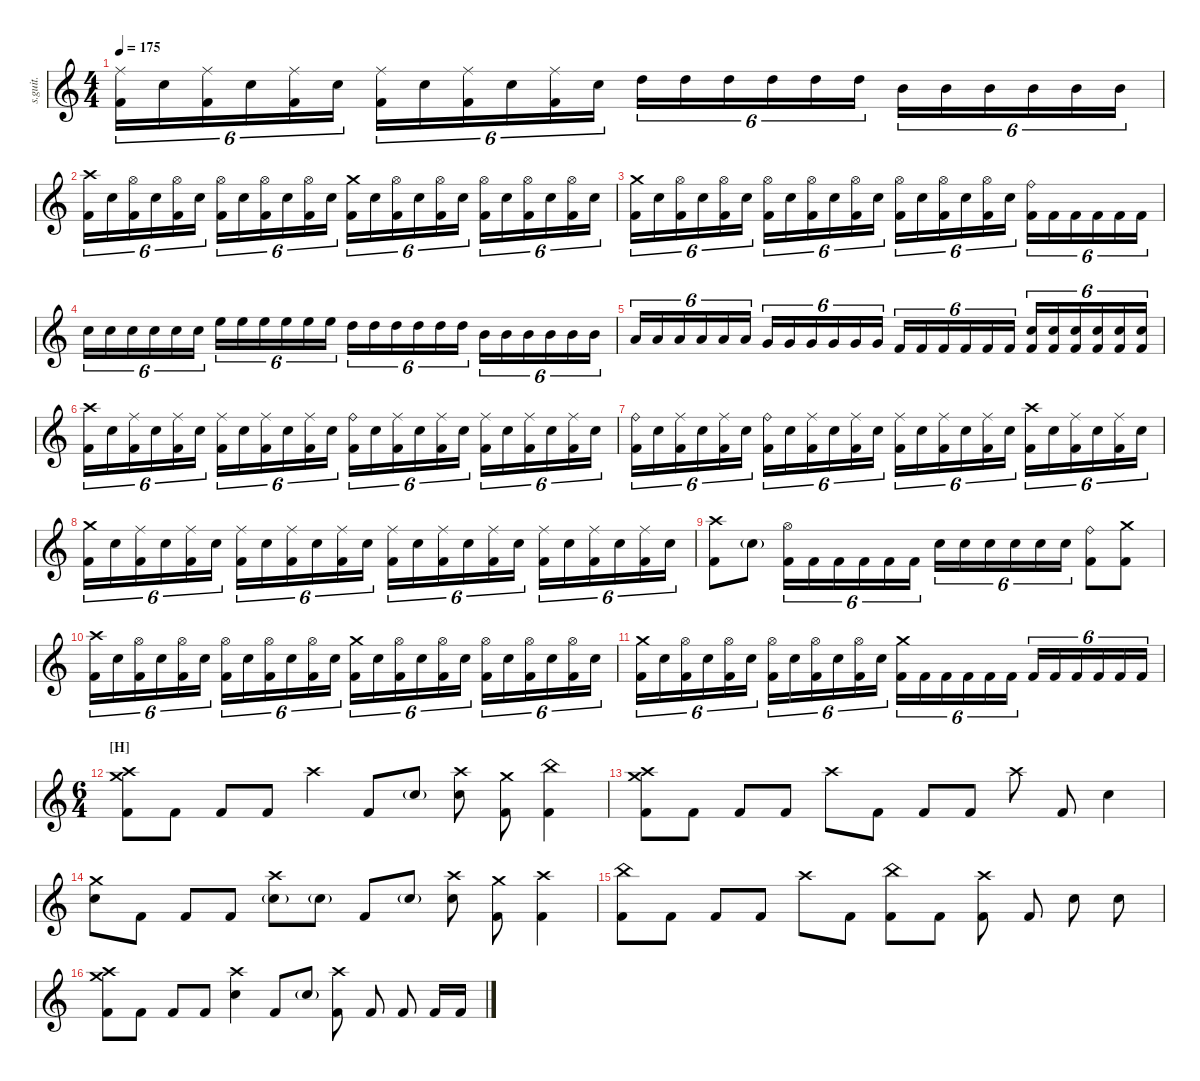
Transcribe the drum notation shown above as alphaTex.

\defaultSystemsLayout 4
\hideDynamics
\bracketExtendMode nobrackets
\track ("" "s.guit.") {instrument percussion}
\staff {score}
\articulation defaults
\ts (4 4)
\tempo 175
\clef g2
\ks c
("Ride (middle)" "Kick (hit) 2").16{tu (6 4) dy ff} "Snare (hit) 2".16{tu (6 4)} ("Ride (middle)" "Kick (hit) 2").16{tu (6 4)} "Snare (hit) 2".16{tu (6 4)} ("Ride (middle)" "Kick (hit) 2").16{tu (6 4)} "Snare (hit) 2".16{tu (6 4)} ("Ride (middle)" "Kick (hit) 2").16{tu (6 4)} "Snare (hit) 2".16{tu (6 4)} ("Ride (middle)" "Kick (hit) 2").16{tu (6 4)} "Snare (hit) 2".16{tu (6 4)} ("Ride (middle)" "Kick (hit) 2").16{tu (6 4)} "Snare (hit) 2".16{tu (6 4)} "High Tom (hit)".16{tu (6 4)} "High Tom (hit)".16{tu (6 4)} "High Tom (hit)".16{tu (6 4)} "High Tom (hit)".16{tu (6 4)} "High Tom (hit)".16{tu (6 4)} "High Tom (hit)".16{tu (6 4)} "Mid Tom (hit)".16{tu (6 4)} "Mid Tom (hit)".16{tu (6 4)} "Mid Tom (hit)".16{tu (6 4)} "Mid Tom (hit)".16{tu (6 4)} "Mid Tom (hit)".16{tu (6 4)} "Mid Tom (hit)".16{tu (6 4)} |
("Crash high (hit)" "Kick (hit) 2").16{tu (6 4)} "Snare (hit) 2".16{tu (6 4)} ("Hi-Hat (open)" "Kick (hit) 2").16{tu (6 4)} "Snare (hit) 2".16{tu (6 4)} ("Hi-Hat (open)" "Kick (hit) 2").16{tu (6 4)} "Snare (hit) 2".16{tu (6 4)} ("Hi-Hat (open)" "Kick (hit) 2").16{tu (6 4)} "Snare (hit) 2".16{tu (6 4)} ("Hi-Hat (open)" "Kick (hit) 2").16{tu (6 4)} "Snare (hit) 2".16{tu (6 4)} ("Hi-Hat (open)" "Kick (hit) 2").16{tu (6 4)} "Snare (hit) 2".16{tu (6 4)} ("Crash medium (hit)" "Kick (hit) 2").16{tu (6 4)} "Snare (hit) 2".16{tu (6 4)} ("Hi-Hat (open)" "Kick (hit) 2").16{tu (6 4)} "Snare (hit) 2".16{tu (6 4)} ("Hi-Hat (open)" "Kick (hit) 2").16{tu (6 4)} "Snare (hit) 2".16{tu (6 4)} ("Hi-Hat (open)" "Kick (hit) 2").16{tu (6 4)} "Snare (hit) 2".16{tu (6 4)} ("Hi-Hat (open)" "Kick (hit) 2").16{tu (6 4)} "Snare (hit) 2".16{tu (6 4)} ("Hi-Hat (open)" "Kick (hit) 2").16{tu (6 4)} "Snare (hit) 2".16{tu (6 4)} |
("Crash medium (hit)" "Kick (hit) 2").16{tu (6 4)} "Snare (hit) 2".16{tu (6 4)} ("Hi-Hat (open)" "Kick (hit) 2").16{tu (6 4)} "Snare (hit) 2".16{tu (6 4)} ("Hi-Hat (open)" "Kick (hit) 2").16{tu (6 4)} "Snare (hit) 2".16{tu (6 4)} ("Hi-Hat (open)" "Kick (hit) 2").16{tu (6 4)} "Snare (hit) 2".16{tu (6 4)} ("Hi-Hat (open)" "Kick (hit) 2").16{tu (6 4)} "Snare (hit) 2".16{tu (6 4)} ("Hi-Hat (open)" "Kick (hit) 2").16{tu (6 4)} "Snare (hit) 2".16{tu (6 4)} ("Hi-Hat (open)" "Kick (hit) 2").16{tu (6 4)} "Snare (hit) 2".16{tu (6 4)} ("Hi-Hat (open)" "Kick (hit) 2").16{tu (6 4)} "Snare (hit) 2".16{tu (6 4)} ("Hi-Hat (open)" "Kick (hit) 2").16{tu (6 4)} "Snare (hit) 2".16{tu (6 4)} ("Ride (bell)" "Kick (hit) 2").16{tu (6 4)} "Kick (hit) 2".16{tu (6 4)} "Kick (hit) 2".16{tu (6 4)} "Kick (hit) 2".16{tu (6 4)} "Kick (hit) 2".16{tu (6 4)} "Kick (hit) 2".16{tu (6 4)} |
"Snare (hit) 2".16{tu (6 4)} "Snare (hit) 2".16{tu (6 4)} "Snare (hit) 2".16{tu (6 4)} "Snare (hit) 2".16{tu (6 4)} "Snare (hit) 2".16{tu (6 4)} "Snare (hit) 2".16{tu (6 4)} "High Floor Tom (hit)".16{tu (6 4)} "High Floor Tom (hit)".16{tu (6 4)} "High Floor Tom (hit)".16{tu (6 4)} "High Floor Tom (hit)".16{tu (6 4)} "High Floor Tom (hit)".16{tu (6 4)} "High Floor Tom (hit)".16{tu (6 4)} "High Tom (hit)".16{tu (6 4)} "High Tom (hit)".16{tu (6 4)} "High Tom (hit)".16{tu (6 4)} "High Tom (hit)".16{tu (6 4)} "High Tom (hit)".16{tu (6 4)} "High Tom (hit)".16{tu (6 4)} "Mid Tom (hit)".16{tu (6 4)} "Mid Tom (hit)".16{tu (6 4)} "Mid Tom (hit)".16{tu (6 4)} "Mid Tom (hit)".16{tu (6 4)} "Mid Tom (hit)".16{tu (6 4)} "Mid Tom (hit)".16{tu (6 4)} |
"Low Tom (hit)".16{tu (6 4)} "Low Tom (hit)".16{tu (6 4)} "Low Tom (hit)".16{tu (6 4)} "Low Tom (hit)".16{tu (6 4)} "Low Tom (hit)".16{tu (6 4)} "Low Tom (hit)".16{tu (6 4)} "Very Low Tom (hit)".16{tu (6 4)} "Very Low Tom (hit)".16{tu (6 4)} "Very Low Tom (hit)".16{tu (6 4)} "Very Low Tom (hit)".16{tu (6 4)} "Very Low Tom (hit)".16{tu (6 4)} "Very Low Tom (hit)".16{tu (6 4)} "Kick (hit) 2".16{tu (6 4)} "Kick (hit) 2".16{tu (6 4)} "Kick (hit) 2".16{tu (6 4)} "Kick (hit) 2".16{tu (6 4)} "Kick (hit) 2".16{tu (6 4)} "Kick (hit) 2".16{tu (6 4)} ("Snare (hit) 2" "Kick (hit) 2").16{tu (6 4)} ("Snare (hit) 2" "Kick (hit) 2").16{tu (6 4)} ("Snare (hit) 2" "Kick (hit) 2").16{tu (6 4)} ("Snare (hit) 2" "Kick (hit) 2").16{tu (6 4)} ("Snare (hit) 2" "Kick (hit) 2").16{tu (6 4)} ("Snare (hit) 2" "Kick (hit) 2").16{tu (6 4)} |
("Crash high (hit)" "Kick (hit) 2").16{tu (6 4)} "Snare (hit) 2".16{tu (6 4)} ("Ride (middle)" "Kick (hit) 2").16{tu (6 4)} "Snare (hit) 2".16{tu (6 4)} ("Ride (middle)" "Kick (hit) 2").16{tu (6 4)} "Snare (hit) 2".16{tu (6 4)} ("Ride (middle)" "Kick (hit) 2").16{tu (6 4)} "Snare (hit) 2".16{tu (6 4)} ("Ride (middle)" "Kick (hit) 2").16{tu (6 4)} "Snare (hit) 2".16{tu (6 4)} ("Ride (middle)" "Kick (hit) 2").16{tu (6 4)} "Snare (hit) 2".16{tu (6 4)} ("Ride (bell)" "Kick (hit) 2").16{tu (6 4)} "Snare (hit) 2".16{tu (6 4)} ("Ride (middle)" "Kick (hit) 2").16{tu (6 4)} "Snare (hit) 2".16{tu (6 4)} ("Ride (middle)" "Kick (hit) 2").16{tu (6 4)} "Snare (hit) 2".16{tu (6 4)} ("Ride (middle)" "Kick (hit) 2").16{tu (6 4)} "Snare (hit) 2".16{tu (6 4)} ("Ride (middle)" "Kick (hit) 2").16{tu (6 4)} "Snare (hit) 2".16{tu (6 4)} ("Ride (middle)" "Kick (hit) 2").16{tu (6 4)} "Snare (hit) 2".16{tu (6 4)} |
("Ride (bell)" "Kick (hit) 2").16{tu (6 4)} "Snare (hit) 2".16{tu (6 4)} ("Ride (middle)" "Kick (hit) 2").16{tu (6 4)} "Snare (hit) 2".16{tu (6 4)} ("Ride (middle)" "Kick (hit) 2").16{tu (6 4)} "Snare (hit) 2".16{tu (6 4)} ("Ride (bell)" "Kick (hit) 2").16{tu (6 4)} "Snare (hit) 2".16{tu (6 4)} ("Ride (middle)" "Kick (hit) 2").16{tu (6 4)} "Snare (hit) 2".16{tu (6 4)} ("Ride (middle)" "Kick (hit) 2").16{tu (6 4)} "Snare (hit) 2".16{tu (6 4)} ("Ride (middle)" "Kick (hit) 2").16{tu (6 4)} "Snare (hit) 2".16{tu (6 4)} ("Ride (middle)" "Kick (hit) 2").16{tu (6 4)} "Snare (hit) 2".16{tu (6 4)} ("Ride (middle)" "Kick (hit) 2").16{tu (6 4)} "Snare (hit) 2".16{tu (6 4)} ("Crash high (hit)" "Kick (hit) 2").16{tu (6 4)} "Snare (hit) 2".16{tu (6 4)} ("Ride (middle)" "Kick (hit) 2").16{tu (6 4)} "Snare (hit) 2".16{tu (6 4)} ("Ride (middle)" "Kick (hit) 2").16{tu (6 4)} "Snare (hit) 2".16{tu (6 4)} |
("Crash medium (hit)" "Kick (hit) 2").16{tu (6 4)} "Snare (hit) 2".16{tu (6 4)} ("Ride (middle)" "Kick (hit) 2").16{tu (6 4)} "Snare (hit) 2".16{tu (6 4)} ("Ride (middle)" "Kick (hit) 2").16{tu (6 4)} "Snare (hit) 2".16{tu (6 4)} ("Ride (middle)" "Kick (hit) 2").16{tu (6 4)} "Snare (hit) 2".16{tu (6 4)} ("Ride (middle)" "Kick (hit) 2").16{tu (6 4)} "Snare (hit) 2".16{tu (6 4)} ("Ride (middle)" "Kick (hit) 2").16{tu (6 4)} "Snare (hit) 2".16{tu (6 4)} ("Ride (middle)" "Kick (hit) 2").16{tu (6 4)} "Snare (hit) 2".16{tu (6 4)} ("Ride (middle)" "Kick (hit) 2").16{tu (6 4)} "Snare (hit) 2".16{tu (6 4)} ("Ride (middle)" "Kick (hit) 2").16{tu (6 4)} "Snare (hit) 2".16{tu (6 4)} ("Ride (middle)" "Kick (hit) 2").16{tu (6 4)} "Snare (hit) 2".16{tu (6 4)} ("Ride (middle)" "Kick (hit) 2").16{tu (6 4)} "Snare (hit) 2".16{tu (6 4)} ("Ride (middle)" "Kick (hit) 2").16{tu (6 4)} "Snare (hit) 2".16{tu (6 4)} |
("Crash high (hit)" "Kick (hit) 2").8 "Snare (hit) 2"{g}.8 ("Hi-Hat (open)" "Kick (hit) 2").16{tu (6 4)} "Kick (hit) 2".16{tu (6 4)} "Kick (hit) 2".16{tu (6 4)} "Kick (hit) 2".16{tu (6 4)} "Kick (hit) 2".16{tu (6 4)} "Kick (hit) 2".16{tu (6 4)} "Snare (hit) 2".16{tu (6 4)} "Snare (hit) 2".16{tu (6 4)} "Snare (hit) 2".16{tu (6 4)} "Snare (hit) 2".16{tu (6 4)} "Snare (hit) 2".16{tu (6 4)} "Snare (hit) 2".16{tu (6 4)} ("Ride (bell)" "Kick (hit) 2").8 ("Crash medium (hit)" "Kick (hit) 2").8 |
("Crash high (hit)" "Kick (hit) 2").16{tu (6 4)} "Snare (hit) 2".16{tu (6 4)} ("Hi-Hat (open)" "Kick (hit) 2").16{tu (6 4)} "Snare (hit) 2".16{tu (6 4)} ("Hi-Hat (open)" "Kick (hit) 2").16{tu (6 4)} "Snare (hit) 2".16{tu (6 4)} ("Hi-Hat (open)" "Kick (hit) 2").16{tu (6 4)} "Snare (hit) 2".16{tu (6 4)} ("Hi-Hat (open)" "Kick (hit) 2").16{tu (6 4)} "Snare (hit) 2".16{tu (6 4)} ("Hi-Hat (open)" "Kick (hit) 2").16{tu (6 4)} "Snare (hit) 2".16{tu (6 4)} ("Crash medium (hit)" "Kick (hit) 2").16{tu (6 4)} "Snare (hit) 2".16{tu (6 4)} ("Hi-Hat (open)" "Kick (hit) 2").16{tu (6 4)} "Snare (hit) 2".16{tu (6 4)} ("Hi-Hat (open)" "Kick (hit) 2").16{tu (6 4)} "Snare (hit) 2".16{tu (6 4)} ("Hi-Hat (open)" "Kick (hit) 2").16{tu (6 4)} "Snare (hit) 2".16{tu (6 4)} ("Hi-Hat (open)" "Kick (hit) 2").16{tu (6 4)} "Snare (hit) 2".16{tu (6 4)} ("Hi-Hat (open)" "Kick (hit) 2").16{tu (6 4)} "Snare (hit) 2".16{tu (6 4)} |
("Crash medium (hit)" "Kick (hit) 2").16{tu (6 4)} "Snare (hit) 2".16{tu (6 4)} ("Hi-Hat (open)" "Kick (hit) 2").16{tu (6 4)} "Snare (hit) 2".16{tu (6 4)} ("Hi-Hat (open)" "Kick (hit) 2").16{tu (6 4)} "Snare (hit) 2".16{tu (6 4)} ("Hi-Hat (open)" "Kick (hit) 2").16{tu (6 4)} "Snare (hit) 2".16{tu (6 4)} ("Hi-Hat (open)" "Kick (hit) 2").16{tu (6 4)} "Snare (hit) 2".16{tu (6 4)} ("Hi-Hat (open)" "Kick (hit) 2").16{tu (6 4)} "Snare (hit) 2".16{tu (6 4)} ("Crash medium (hit)" "Kick (hit) 2").16{tu (6 4)} "Kick (hit) 2".16{tu (6 4)} "Kick (hit) 2".16{tu (6 4)} "Kick (hit) 2".16{tu (6 4)} "Kick (hit) 2".16{tu (6 4)} "Kick (hit) 2".16{tu (6 4)} "Kick (hit) 2".16{tu (6 4)} "Kick (hit) 2".16{tu (6 4)} "Kick (hit) 2".16{tu (6 4)} "Kick (hit) 2".16{tu (6 4)} "Kick (hit) 2".16{tu (6 4)} "Kick (hit) 2".16{tu (6 4)} |
\ts (6 4)
\beaming (8 2 2 2 2)
\section ("H" "")
("Crash medium (hit)" "Crash high (hit)" "Kick (hit) 2").8 "Kick (hit) 2".8 "Kick (hit) 2".8 "Kick (hit) 2".8 "Crash high (hit)".4 "Kick (hit) 2".8 "Snare (hit) 2"{g}.8 ("Crash high (hit)" "Snare (hit) 2").8 ("Crash medium (hit)" "Kick (hit) 2").8 ("China (hit)" "Kick (hit) 2").4 |
("Crash high (hit)" "Crash medium (hit)" "Kick (hit) 2").8 "Kick (hit) 2".8 "Kick (hit) 2".8 "Kick (hit) 2".8 "Crash high (hit)".8 "Kick (hit) 2".8 "Kick (hit) 2".8 "Kick (hit) 2".8 "Crash high (hit)".8 "Kick (hit) 2".8 "Snare (hit) 2".4 |
("Crash medium (hit)" "Snare (hit) 2").8 "Kick (hit) 2".8 "Kick (hit) 2".8 "Kick (hit) 2".8 ("Crash high (hit)" "Snare (hit) 2"{g}).8 "Snare (hit) 2"{g}.8 "Kick (hit) 2".8 "Snare (hit) 2"{g}.8 ("Crash high (hit)" "Snare (hit) 2").8 ("Crash medium (hit)" "Kick (hit) 2").8 ("Crash high (hit)" "Kick (hit) 2").4 |
("China (hit)" "Kick (hit) 2").8 "Kick (hit) 2".8 "Kick (hit) 2".8 "Kick (hit) 2".8 "Crash high (hit)".8 "Kick (hit) 2".8 ("China (hit)" "Kick (hit) 2").8 "Kick (hit) 2".8 ("Crash high (hit)" "Kick (hit) 2").8 "Kick (hit) 2".8 "Snare (hit) 2".8 "Snare (hit) 2".8 |
("Crash high (hit)" "Crash medium (hit)" "Kick (hit) 2").8 "Kick (hit) 2".8 "Kick (hit) 2".8 "Kick (hit) 2".8 ("Crash high (hit)" "Snare (hit) 2").4 "Kick (hit) 2".8 "Snare (hit) 2"{g}.8 ("Crash high (hit)" "Kick (hit) 2").8 "Kick (hit) 2".8 "Kick (hit) 2".8 "Kick (hit) 2".16 "Kick (hit) 2".16
